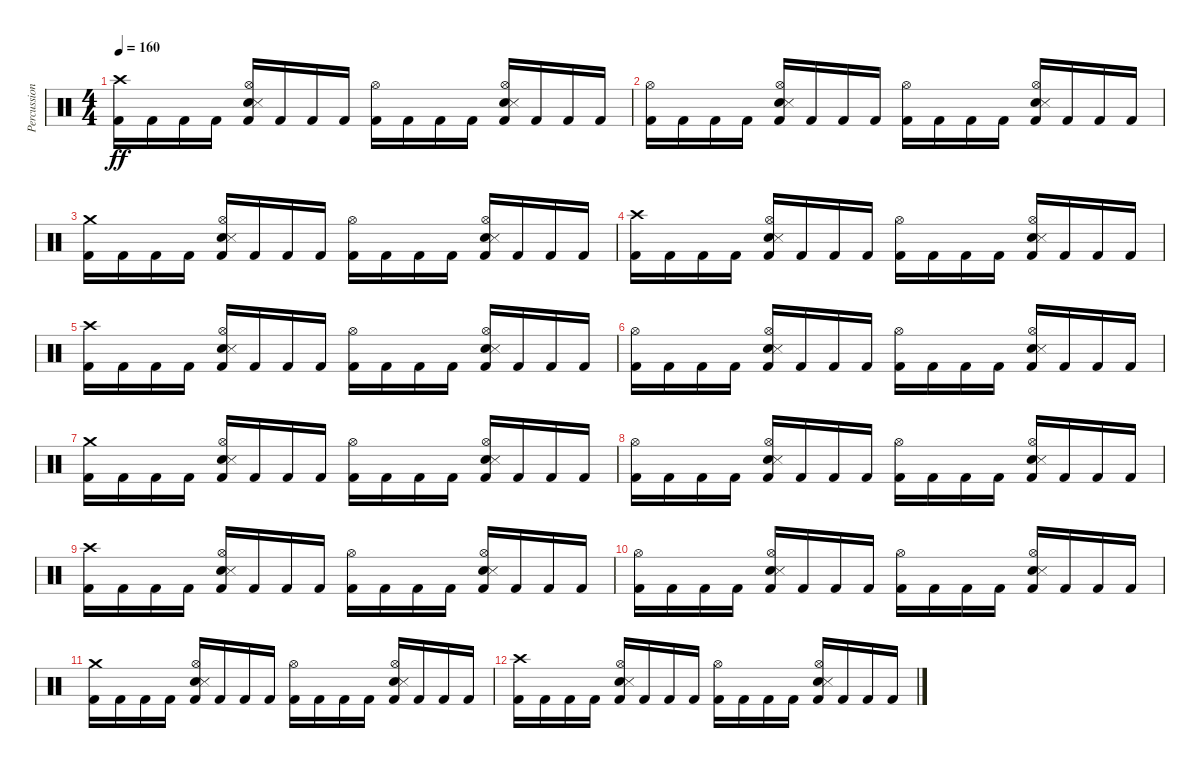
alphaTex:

\track ("Percussions" "Percussion") {instrument percussion}
\staff {score}
\articulation defaults
\ts (4 4)
\tempo 160
\clef neutral
\ks c
("Crash high (hit)" "Kick (hit) 2").16{dy ff} "Kick (hit) 2".16 "Kick (hit) 2".16 "Kick (hit) 2".16 ("Hi-Hat (open)" "Electric Snare (hit)" "Snare (side stick) 3" "Kick (hit) 2").16 "Kick (hit) 2".16 "Kick (hit) 2".16 "Kick (hit) 2".16 ("Hi-Hat (open)" "Kick (hit) 2").16 "Kick (hit) 2".16 "Kick (hit) 2".16 "Kick (hit) 2".16 ("Hi-Hat (open)" "Electric Snare (hit)" "Snare (side stick) 3" "Kick (hit) 2").16 "Kick (hit) 2".16 "Kick (hit) 2".16 "Kick (hit) 2".16 |
("Hi-Hat (open)" "Kick (hit) 2").16 "Kick (hit) 2".16 "Kick (hit) 2".16 "Kick (hit) 2".16 ("Hi-Hat (open)" "Electric Snare (hit)" "Snare (side stick) 3" "Kick (hit) 2").16 "Kick (hit) 2".16 "Kick (hit) 2".16 "Kick (hit) 2".16 ("Hi-Hat (open)" "Kick (hit) 2").16 "Kick (hit) 2".16 "Kick (hit) 2".16 "Kick (hit) 2".16 ("Hi-Hat (open)" "Electric Snare (hit)" "Snare (side stick) 3" "Kick (hit) 2").16 "Kick (hit) 2".16 "Kick (hit) 2".16 "Kick (hit) 2".16 |
("Crash medium (hit)" "Kick (hit) 2").16 "Kick (hit) 2".16 "Kick (hit) 2".16 "Kick (hit) 2".16 ("Hi-Hat (open)" "Electric Snare (hit)" "Snare (side stick) 3" "Kick (hit) 2").16 "Kick (hit) 2".16 "Kick (hit) 2".16 "Kick (hit) 2".16 ("Hi-Hat (open)" "Kick (hit) 2").16 "Kick (hit) 2".16 "Kick (hit) 2".16 "Kick (hit) 2".16 ("Hi-Hat (open)" "Electric Snare (hit)" "Snare (side stick) 3" "Kick (hit) 2").16 "Kick (hit) 2".16 "Kick (hit) 2".16 "Kick (hit) 2".16 |
("Crash high (hit)" "Kick (hit) 2").16 "Kick (hit) 2".16 "Kick (hit) 2".16 "Kick (hit) 2".16 ("Hi-Hat (open)" "Electric Snare (hit)" "Snare (side stick) 3" "Kick (hit) 2").16 "Kick (hit) 2".16 "Kick (hit) 2".16 "Kick (hit) 2".16 ("Hi-Hat (open)" "Kick (hit) 2").16 "Kick (hit) 2".16 "Kick (hit) 2".16 "Kick (hit) 2".16 ("Hi-Hat (open)" "Electric Snare (hit)" "Snare (side stick) 3" "Kick (hit) 2").16 "Kick (hit) 2".16 "Kick (hit) 2".16 "Kick (hit) 2".16 |
("Crash high (hit)" "Kick (hit) 2").16 "Kick (hit) 2".16 "Kick (hit) 2".16 "Kick (hit) 2".16 ("Hi-Hat (open)" "Electric Snare (hit)" "Snare (side stick) 3" "Kick (hit) 2").16 "Kick (hit) 2".16 "Kick (hit) 2".16 "Kick (hit) 2".16 ("Hi-Hat (open)" "Kick (hit) 2").16 "Kick (hit) 2".16 "Kick (hit) 2".16 "Kick (hit) 2".16 ("Hi-Hat (open)" "Electric Snare (hit)" "Snare (side stick) 3" "Kick (hit) 2").16 "Kick (hit) 2".16 "Kick (hit) 2".16 "Kick (hit) 2".16 |
("Hi-Hat (open)" "Kick (hit) 2").16 "Kick (hit) 2".16 "Kick (hit) 2".16 "Kick (hit) 2".16 ("Hi-Hat (open)" "Electric Snare (hit)" "Snare (side stick) 3" "Kick (hit) 2").16 "Kick (hit) 2".16 "Kick (hit) 2".16 "Kick (hit) 2".16 ("Hi-Hat (open)" "Kick (hit) 2").16 "Kick (hit) 2".16 "Kick (hit) 2".16 "Kick (hit) 2".16 ("Hi-Hat (open)" "Electric Snare (hit)" "Snare (side stick) 3" "Kick (hit) 2").16 "Kick (hit) 2".16 "Kick (hit) 2".16 "Kick (hit) 2".16 |
("Crash medium (hit)" "Kick (hit) 2").16 "Kick (hit) 2".16 "Kick (hit) 2".16 "Kick (hit) 2".16 ("Hi-Hat (open)" "Electric Snare (hit)" "Snare (side stick) 3" "Kick (hit) 2").16 "Kick (hit) 2".16 "Kick (hit) 2".16 "Kick (hit) 2".16 ("Hi-Hat (open)" "Kick (hit) 2").16 "Kick (hit) 2".16 "Kick (hit) 2".16 "Kick (hit) 2".16 ("Hi-Hat (open)" "Electric Snare (hit)" "Snare (side stick) 3" "Kick (hit) 2").16 "Kick (hit) 2".16 "Kick (hit) 2".16 "Kick (hit) 2".16 |
("Hi-Hat (open)" "Kick (hit) 2").16 "Kick (hit) 2".16 "Kick (hit) 2".16 "Kick (hit) 2".16 ("Hi-Hat (open)" "Electric Snare (hit)" "Snare (side stick) 3" "Kick (hit) 2").16 "Kick (hit) 2".16 "Kick (hit) 2".16 "Kick (hit) 2".16 ("Hi-Hat (open)" "Kick (hit) 2").16 "Kick (hit) 2".16 "Kick (hit) 2".16 "Kick (hit) 2".16 ("Hi-Hat (open)" "Electric Snare (hit)" "Snare (side stick) 3" "Kick (hit) 2").16 "Kick (hit) 2".16 "Kick (hit) 2".16 "Kick (hit) 2".16 |
("Crash high (hit)" "Kick (hit) 2").16 "Kick (hit) 2".16 "Kick (hit) 2".16 "Kick (hit) 2".16 ("Hi-Hat (open)" "Electric Snare (hit)" "Snare (side stick) 3" "Kick (hit) 2").16 "Kick (hit) 2".16 "Kick (hit) 2".16 "Kick (hit) 2".16 ("Hi-Hat (open)" "Kick (hit) 2").16 "Kick (hit) 2".16 "Kick (hit) 2".16 "Kick (hit) 2".16 ("Hi-Hat (open)" "Electric Snare (hit)" "Snare (side stick) 3" "Kick (hit) 2").16 "Kick (hit) 2".16 "Kick (hit) 2".16 "Kick (hit) 2".16 |
("Hi-Hat (open)" "Kick (hit) 2").16 "Kick (hit) 2".16 "Kick (hit) 2".16 "Kick (hit) 2".16 ("Hi-Hat (open)" "Electric Snare (hit)" "Snare (side stick) 3" "Kick (hit) 2").16 "Kick (hit) 2".16 "Kick (hit) 2".16 "Kick (hit) 2".16 ("Hi-Hat (open)" "Kick (hit) 2").16 "Kick (hit) 2".16 "Kick (hit) 2".16 "Kick (hit) 2".16 ("Hi-Hat (open)" "Electric Snare (hit)" "Snare (side stick) 3" "Kick (hit) 2").16 "Kick (hit) 2".16 "Kick (hit) 2".16 "Kick (hit) 2".16 |
("Crash medium (hit)" "Kick (hit) 2").16 "Kick (hit) 2".16 "Kick (hit) 2".16 "Kick (hit) 2".16 ("Hi-Hat (open)" "Electric Snare (hit)" "Snare (side stick) 3" "Kick (hit) 2").16 "Kick (hit) 2".16 "Kick (hit) 2".16 "Kick (hit) 2".16 ("Hi-Hat (open)" "Kick (hit) 2").16 "Kick (hit) 2".16 "Kick (hit) 2".16 "Kick (hit) 2".16 ("Hi-Hat (open)" "Electric Snare (hit)" "Snare (side stick) 3" "Kick (hit) 2").16 "Kick (hit) 2".16 "Kick (hit) 2".16 "Kick (hit) 2".16 |
("Crash high (hit)" "Kick (hit) 2").16 "Kick (hit) 2".16 "Kick (hit) 2".16 "Kick (hit) 2".16 ("Hi-Hat (open)" "Electric Snare (hit)" "Snare (side stick) 3" "Kick (hit) 2").16 "Kick (hit) 2".16 "Kick (hit) 2".16 "Kick (hit) 2".16 ("Hi-Hat (open)" "Kick (hit) 2").16 "Kick (hit) 2".16 "Kick (hit) 2".16 "Kick (hit) 2".16 ("Hi-Hat (open)" "Electric Snare (hit)" "Snare (side stick) 3" "Kick (hit) 2").16 "Kick (hit) 2".16 "Kick (hit) 2".16 "Kick (hit) 2".16
